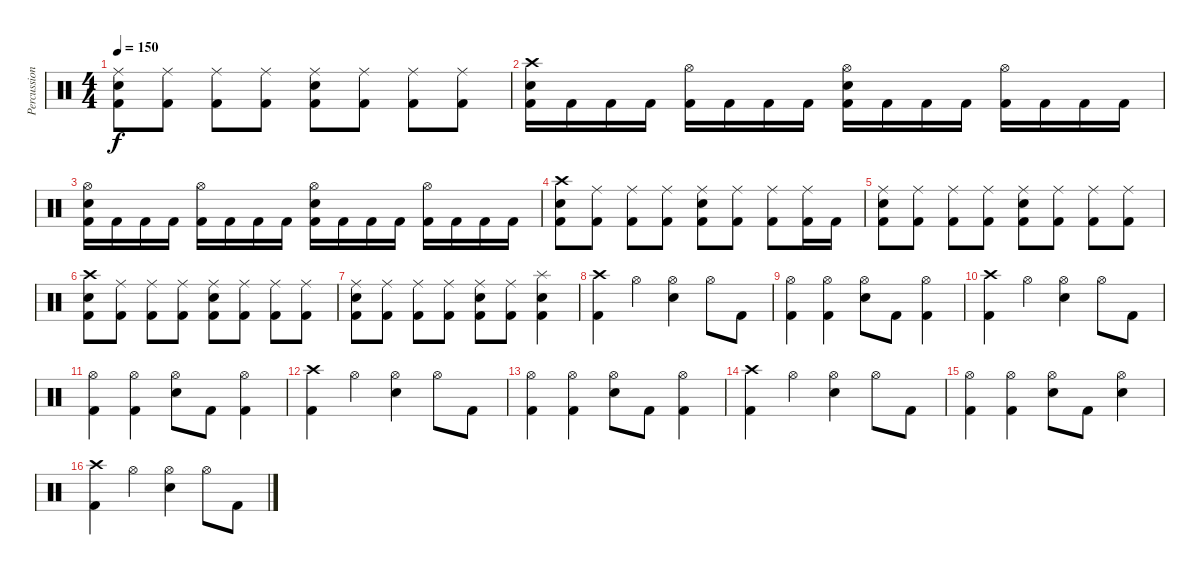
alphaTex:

\track ("Percussion" "Percussion") {instrument percussion}
\staff {score}
\articulation defaults
\ts (4 4)
\tempo 150
\clef neutral
\ks c
("Ride (middle)" "Snare (hit) 2" "Kick (hit) 2").8{dy f} ("Ride (middle)" "Kick (hit) 2").8 ("Ride (middle)" "Kick (hit) 2").8 ("Ride (middle)" "Kick (hit) 2").8 ("Ride (middle)" "Snare (hit) 2" "Kick (hit) 2").8 ("Ride (middle)" "Kick (hit) 2").8 ("Ride (middle)" "Kick (hit) 2").8 ("Ride (middle)" "Kick (hit) 2").8 |
("Crash high (hit)" "Snare (hit) 2" "Kick (hit) 2").16 "Kick (hit) 2".16 "Kick (hit) 2".16 "Kick (hit) 2".16 ("Hi-Hat (open)" "Kick (hit) 2").16 "Kick (hit) 2".16 "Kick (hit) 2".16 "Kick (hit) 2".16 ("Hi-Hat (open)" "Snare (hit) 2" "Kick (hit) 2").16 "Kick (hit) 2".16 "Kick (hit) 2".16 "Kick (hit) 2".16 ("Hi-Hat (open)" "Kick (hit) 2").16 "Kick (hit) 2".16 "Kick (hit) 2".16 "Kick (hit) 2".16 |
("Hi-Hat (open)" "Snare (hit) 2" "Kick (hit) 2").16 "Kick (hit) 2".16 "Kick (hit) 2".16 "Kick (hit) 2".16 ("Hi-Hat (open)" "Kick (hit) 2").16 "Kick (hit) 2".16 "Kick (hit) 2".16 "Kick (hit) 2".16 ("Hi-Hat (open)" "Snare (hit) 2" "Kick (hit) 2").16 "Kick (hit) 2".16 "Kick (hit) 2".16 "Kick (hit) 2".16 ("Hi-Hat (open)" "Kick (hit) 2").16 "Kick (hit) 2".16 "Kick (hit) 2".16 "Kick (hit) 2".16 |
("Crash high (hit)" "Snare (hit) 2" "Kick (hit) 2").8 ("Ride (middle)" "Kick (hit) 2").8 ("Ride (middle)" "Kick (hit) 2").8 ("Ride (middle)" "Kick (hit) 2").8 ("Ride (middle)" "Snare (hit) 2" "Kick (hit) 2").8 ("Ride (middle)" "Kick (hit) 2").8 ("Ride (middle)" "Kick (hit) 2").8 ("Ride (middle)" "Kick (hit) 2").16 "Kick (hit) 2".16 |
("Ride (middle)" "Snare (hit) 2" "Kick (hit) 2").8 ("Ride (middle)" "Kick (hit) 2").8 ("Ride (middle)" "Kick (hit) 2").8 ("Ride (middle)" "Kick (hit) 2").8 ("Ride (middle)" "Snare (hit) 2" "Kick (hit) 2").8 ("Ride (middle)" "Kick (hit) 2").8 ("Ride (middle)" "Kick (hit) 2").8 ("Ride (middle)" "Kick (hit) 2").8 |
("Crash high (hit)" "Snare (hit) 2" "Kick (hit) 2").8 ("Ride (middle)" "Kick (hit) 2").8 ("Ride (middle)" "Kick (hit) 2").8 ("Ride (middle)" "Kick (hit) 2").8 ("Ride (middle)" "Snare (hit) 2" "Kick (hit) 2").8 ("Ride (middle)" "Kick (hit) 2").8 ("Ride (middle)" "Kick (hit) 2").8 ("Ride (middle)" "Kick (hit) 2").8 |
("Ride (middle)" "Snare (hit) 2" "Kick (hit) 2").8 ("Ride (middle)" "Kick (hit) 2").8 ("Ride (middle)" "Kick (hit) 2").8 ("Ride (middle)" "Kick (hit) 2").8 ("Ride (middle)" "Snare (hit) 2" "Kick (hit) 2").8 ("Ride (middle)" "Kick (hit) 2").8 ("Splash (hit)" "Snare (hit) 2" "Kick (hit) 2").4 |
("Crash high (hit)" "Kick (hit) 2").4 "Hi-Hat (open)".4 ("Hi-Hat (open)" "Snare (hit) 2").4 "Hi-Hat (open)".8 "Kick (hit) 2".8 |
("Hi-Hat (open)" "Kick (hit) 2").4 ("Hi-Hat (open)" "Kick (hit) 2").4 ("Hi-Hat (open)" "Snare (hit) 2").8 "Kick (hit) 2".8 ("Hi-Hat (open)" "Kick (hit) 2").4 |
("Crash high (hit)" "Kick (hit) 2").4 "Hi-Hat (open)".4 ("Hi-Hat (open)" "Snare (hit) 2").4 "Hi-Hat (open)".8 "Kick (hit) 2".8 |
("Hi-Hat (open)" "Kick (hit) 2").4 ("Hi-Hat (open)" "Kick (hit) 2").4 ("Hi-Hat (open)" "Snare (hit) 2").8 "Kick (hit) 2".8 ("Hi-Hat (open)" "Kick (hit) 2").4 |
("Crash high (hit)" "Kick (hit) 2").4 "Hi-Hat (open)".4 ("Hi-Hat (open)" "Snare (hit) 2").4 "Hi-Hat (open)".8 "Kick (hit) 2".8 |
("Hi-Hat (open)" "Kick (hit) 2").4 ("Hi-Hat (open)" "Kick (hit) 2").4 ("Hi-Hat (open)" "Snare (hit) 2").8 "Kick (hit) 2".8 ("Hi-Hat (open)" "Kick (hit) 2").4 |
("Crash high (hit)" "Kick (hit) 2").4 "Hi-Hat (open)".4 ("Hi-Hat (open)" "Snare (hit) 2").4 "Hi-Hat (open)".8 "Kick (hit) 2".8 |
("Hi-Hat (open)" "Kick (hit) 2").4 ("Hi-Hat (open)" "Kick (hit) 2").4 ("Hi-Hat (open)" "Snare (hit) 2").8 "Kick (hit) 2".8 ("Hi-Hat (open)" "Snare (hit) 2").4 |
("Crash high (hit)" "Kick (hit) 2").4 "Hi-Hat (open)".4 ("Hi-Hat (open)" "Snare (hit) 2").4 "Hi-Hat (open)".8 "Kick (hit) 2".8
